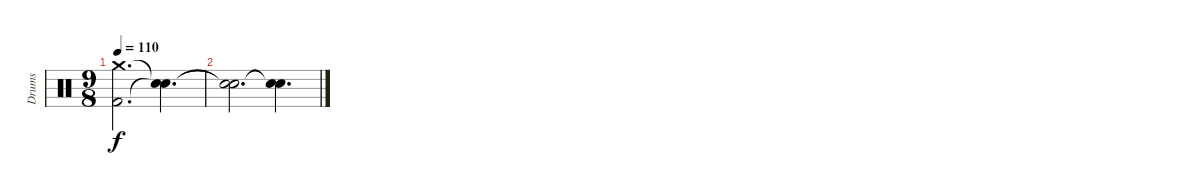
\track ("Drums" "Drums") {instrument percussion}
\staff {score}
\articulation defaults
\ts (9 8)
\tempo 110
\clef neutral
\ks c
("Kick (hit) 2" "Crash medium (hit)").2{d dy f} ("Snare (hit)"{t} "Snare (hit)"{t}).4{d} |
("Snare (hit)"{t} "Snare (hit)"{t}).2{d} ("Snare (hit)"{t} "Snare (hit)"{t}).4{d}
